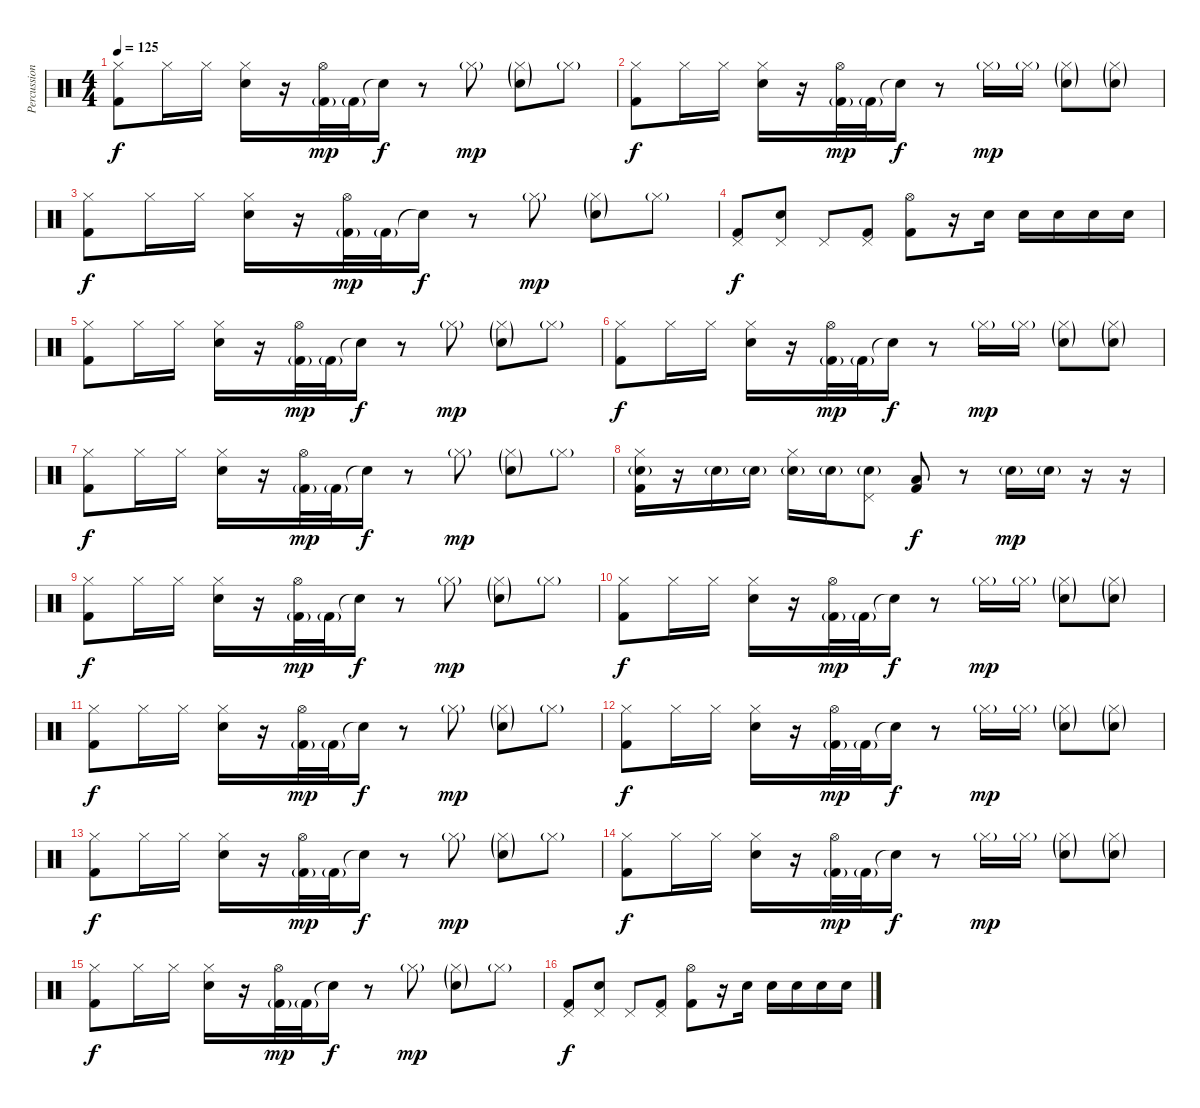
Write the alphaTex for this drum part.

\track ("Percussion" "Percussion") {instrument percussion}
\staff {score}
\articulation defaults
\ts (4 4)
\tempo 125
\clef neutral
\ks c
("Hi-Hat (closed)" "Kick (hit) 2").8{dy f} "Hi-Hat (closed)".16 "Hi-Hat (closed)".16 ("Hi-Hat (closed)" "Snare (hit) 2").16 r.16 ("Hi-Hat (open)" "Kick (hit) 2"{g}).32{dy mp} "Kick (hit) 2"{g}.32 "Snare (hit)"{t}.16{dy f} r.8 "Hi-Hat (closed)"{g}.8{dy mp} ("Hi-Hat (closed)"{g} "Snare (hit) 2"{g}).8 "Hi-Hat (closed)"{g}.8 |
("Hi-Hat (closed)" "Kick (hit) 2").8{dy f} "Hi-Hat (closed)".16 "Hi-Hat (closed)".16 ("Hi-Hat (closed)" "Snare (hit) 2").16 r.16 ("Hi-Hat (open)" "Kick (hit) 2"{g}).32{dy mp} "Kick (hit) 2"{g}.32 "Snare (hit)"{t}.16{dy f} r.8 "Hi-Hat (closed)"{g}.16{dy mp} "Hi-Hat (closed)"{g}.16 ("Hi-Hat (closed)"{g} "Snare (hit) 2"{g}).8 ("Hi-Hat (closed)"{g} "Snare (hit) 2"{g}).8 |
("Hi-Hat (closed)" "Kick (hit) 2").8{dy f} "Hi-Hat (closed)".16 "Hi-Hat (closed)".16 ("Hi-Hat (closed)" "Snare (hit) 2").16 r.16 ("Hi-Hat (open)" "Kick (hit) 2"{g}).32{dy mp} "Kick (hit) 2"{g}.32 "Snare (hit)"{t}.16{dy f} r.8 "Hi-Hat (closed)"{g}.8{dy mp} ("Hi-Hat (closed)"{g} "Snare (hit) 2"{g}).8 "Hi-Hat (closed)"{g}.8 |
("Pedal Hi-Hat (hit)" "Kick (hit) 2").8{dy f} ("Pedal Hi-Hat (hit)" "Snare (hit) 2").8 "Pedal Hi-Hat (hit)".8 ("Pedal Hi-Hat (hit)" "Kick (hit) 2").8 ("Hi-Hat (open)" "Kick (hit) 2").8 r.16 "Snare (hit) 2".16 "Snare (hit) 2".16 "Snare (hit) 2".16 "Snare (hit) 2".16 "Snare (hit) 2".16 |
("Hi-Hat (closed)" "Kick (hit) 2").8 "Hi-Hat (closed)".16 "Hi-Hat (closed)".16 ("Hi-Hat (closed)" "Snare (hit) 2").16 r.16 ("Hi-Hat (open)" "Kick (hit) 2"{g}).32{dy mp} "Kick (hit) 2"{g}.32 "Snare (hit)"{t}.16{dy f} r.8 "Hi-Hat (closed)"{g}.8{dy mp} ("Hi-Hat (closed)"{g} "Snare (hit) 2"{g}).8 "Hi-Hat (closed)"{g}.8 |
("Hi-Hat (closed)" "Kick (hit) 2").8{dy f} "Hi-Hat (closed)".16 "Hi-Hat (closed)".16 ("Hi-Hat (closed)" "Snare (hit) 2").16 r.16 ("Hi-Hat (open)" "Kick (hit) 2"{g}).32{dy mp} "Kick (hit) 2"{g}.32 "Snare (hit)"{t}.16{dy f} r.8 "Hi-Hat (closed)"{g}.16{dy mp} "Hi-Hat (closed)"{g}.16 ("Hi-Hat (closed)"{g} "Snare (hit) 2"{g}).8 ("Hi-Hat (closed)"{g} "Snare (hit) 2"{g}).8 |
("Hi-Hat (closed)" "Kick (hit) 2").8{dy f} "Hi-Hat (closed)".16 "Hi-Hat (closed)".16 ("Hi-Hat (closed)" "Snare (hit) 2").16 r.16 ("Hi-Hat (open)" "Kick (hit) 2"{g}).32{dy mp} "Kick (hit) 2"{g}.32 "Snare (hit)"{t}.16{dy f} r.8 "Hi-Hat (closed)"{g}.8{dy mp} ("Hi-Hat (closed)"{g} "Snare (hit) 2"{g}).8 "Hi-Hat (closed)"{g}.8 |
("Hi-Hat (closed)" "Snare (hit) 2"{g} "Kick (hit) 2").16 r.16 "Snare (hit) 2"{g}.16 "Snare (hit) 2"{g}.16 ("Hi-Hat (closed)" "Snare (hit) 2"{g}).16 "Snare (hit) 2"{g}.16 ("Pedal Hi-Hat (hit)" "Snare (hit) 2"{g}).8 ("Low Tom (hit)" "Kick (hit) 2").8{dy f} r.8 "Snare (hit) 2"{g}.16{dy mp} "Snare (hit) 2"{g}.16 r.16 r.16 |
("Hi-Hat (closed)" "Kick (hit) 2").8{dy f} "Hi-Hat (closed)".16 "Hi-Hat (closed)".16 ("Hi-Hat (closed)" "Snare (hit) 2").16 r.16 ("Hi-Hat (open)" "Kick (hit) 2"{g}).32{dy mp} "Kick (hit) 2"{g}.32 "Snare (hit)"{t}.16{dy f} r.8 "Hi-Hat (closed)"{g}.8{dy mp} ("Hi-Hat (closed)"{g} "Snare (hit) 2"{g}).8 "Hi-Hat (closed)"{g}.8 |
("Hi-Hat (closed)" "Kick (hit) 2").8{dy f} "Hi-Hat (closed)".16 "Hi-Hat (closed)".16 ("Hi-Hat (closed)" "Snare (hit) 2").16 r.16 ("Hi-Hat (open)" "Kick (hit) 2"{g}).32{dy mp} "Kick (hit) 2"{g}.32 "Snare (hit)"{t}.16{dy f} r.8 "Hi-Hat (closed)"{g}.16{dy mp} "Hi-Hat (closed)"{g}.16 ("Hi-Hat (closed)"{g} "Snare (hit) 2"{g}).8 ("Hi-Hat (closed)"{g} "Snare (hit) 2"{g}).8 |
("Hi-Hat (closed)" "Kick (hit) 2").8{dy f} "Hi-Hat (closed)".16 "Hi-Hat (closed)".16 ("Hi-Hat (closed)" "Snare (hit) 2").16 r.16 ("Hi-Hat (open)" "Kick (hit) 2"{g}).32{dy mp} "Kick (hit) 2"{g}.32 "Snare (hit)"{t}.16{dy f} r.8 "Hi-Hat (closed)"{g}.8{dy mp} ("Hi-Hat (closed)"{g} "Snare (hit) 2"{g}).8 "Hi-Hat (closed)"{g}.8 |
("Hi-Hat (closed)" "Kick (hit) 2").8{dy f} "Hi-Hat (closed)".16 "Hi-Hat (closed)".16 ("Hi-Hat (closed)" "Snare (hit) 2").16 r.16 ("Hi-Hat (open)" "Kick (hit) 2"{g}).32{dy mp} "Kick (hit) 2"{g}.32 "Snare (hit)"{t}.16{dy f} r.8 "Hi-Hat (closed)"{g}.16{dy mp} "Hi-Hat (closed)"{g}.16 ("Hi-Hat (closed)"{g} "Snare (hit) 2"{g}).8 ("Hi-Hat (closed)"{g} "Snare (hit) 2"{g}).8 |
("Hi-Hat (closed)" "Kick (hit) 2").8{dy f} "Hi-Hat (closed)".16 "Hi-Hat (closed)".16 ("Hi-Hat (closed)" "Snare (hit) 2").16 r.16 ("Hi-Hat (open)" "Kick (hit) 2"{g}).32{dy mp} "Kick (hit) 2"{g}.32 "Snare (hit)"{t}.16{dy f} r.8 "Hi-Hat (closed)"{g}.8{dy mp} ("Hi-Hat (closed)"{g} "Snare (hit) 2"{g}).8 "Hi-Hat (closed)"{g}.8 |
("Hi-Hat (closed)" "Kick (hit) 2").8{dy f} "Hi-Hat (closed)".16 "Hi-Hat (closed)".16 ("Hi-Hat (closed)" "Snare (hit) 2").16 r.16 ("Hi-Hat (open)" "Kick (hit) 2"{g}).32{dy mp} "Kick (hit) 2"{g}.32 "Snare (hit)"{t}.16{dy f} r.8 "Hi-Hat (closed)"{g}.16{dy mp} "Hi-Hat (closed)"{g}.16 ("Hi-Hat (closed)"{g} "Snare (hit) 2"{g}).8 ("Hi-Hat (closed)"{g} "Snare (hit) 2"{g}).8 |
("Hi-Hat (closed)" "Kick (hit) 2").8{dy f} "Hi-Hat (closed)".16 "Hi-Hat (closed)".16 ("Hi-Hat (closed)" "Snare (hit) 2").16 r.16 ("Hi-Hat (open)" "Kick (hit) 2"{g}).32{dy mp} "Kick (hit) 2"{g}.32 "Snare (hit)"{t}.16{dy f} r.8 "Hi-Hat (closed)"{g}.8{dy mp} ("Hi-Hat (closed)"{g} "Snare (hit) 2"{g}).8 "Hi-Hat (closed)"{g}.8 |
("Pedal Hi-Hat (hit)" "Kick (hit) 2").8{dy f} ("Pedal Hi-Hat (hit)" "Snare (hit) 2").8 "Pedal Hi-Hat (hit)".8 ("Pedal Hi-Hat (hit)" "Kick (hit) 2").8 ("Hi-Hat (open)" "Kick (hit) 2").8 r.16 "Snare (hit) 2".16 "Snare (hit) 2".16 "Snare (hit) 2".16 "Snare (hit) 2".16 "Snare (hit) 2".16
